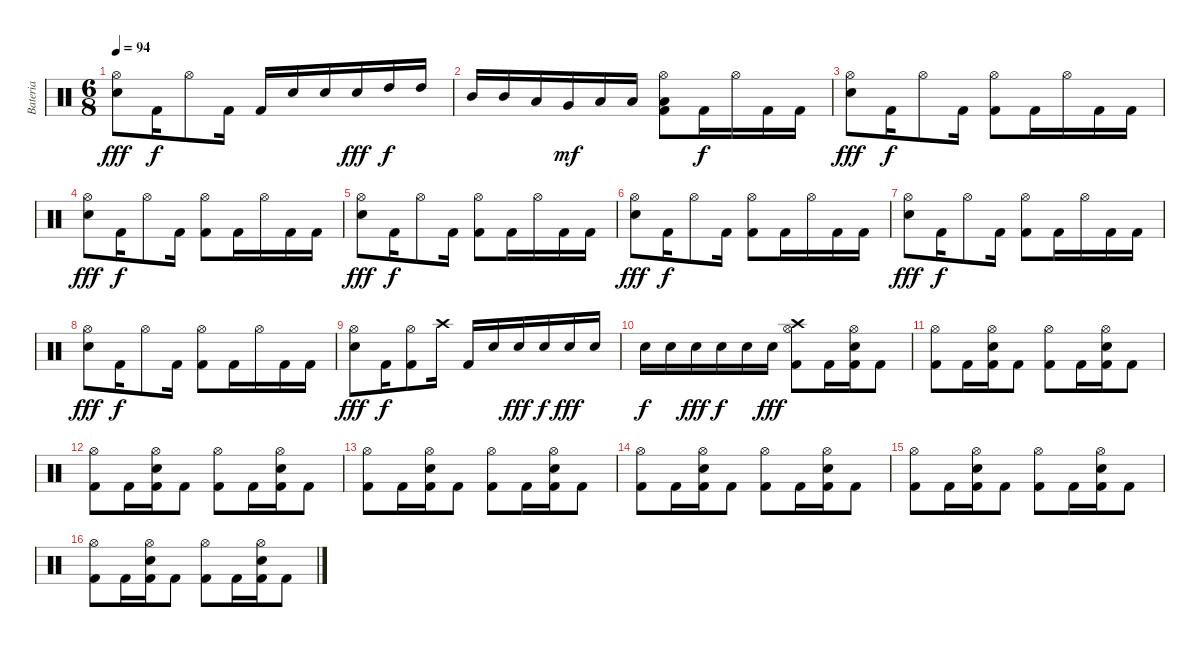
\track ("Bateria" "Bateria") {instrument percussion}
\staff {score}
\articulation defaults
\ts (6 8)
\tempo 94
\clef neutral
\ks c
("Hi-Hat (open)" "Electric Snare (hit)").8{dy fff} "Kick (hit) 2".16{dy f} "Hi-Hat (open)".8 "Kick (hit) 2".16 "Kick (hit) 2".16 "Electric Snare (hit)".16 "Electric Snare (hit)".16 "Electric Snare (hit)".16{dy fff} "High Tom (hit)".16{dy f} "High Tom (hit)".16 |
"Mid Tom (hit)".16 "Mid Tom (hit)".16 "Low Tom (hit)".16 "Very Low Tom (hit)".16{dy mf} "Low Floor Tom (hit)".16 "Low Floor Tom (hit)".16 ("Hi-Hat (open)" "Low Floor Tom (hit)" "Kick (hit) 2").8 "Kick (hit) 2".16{dy f} "Hi-Hat (open)".16 "Kick (hit) 2".16 "Kick (hit) 2".16 |
("Hi-Hat (open)" "Electric Snare (hit)").8{dy fff} "Kick (hit) 2".16{dy f} "Hi-Hat (open)".8 "Kick (hit) 2".16 ("Hi-Hat (open)" "Kick (hit) 2").8 "Kick (hit) 2".16 "Hi-Hat (open)".16 "Kick (hit) 2".16 "Kick (hit) 2".16 |
("Hi-Hat (open)" "Electric Snare (hit)").8{dy fff} "Kick (hit) 2".16{dy f} "Hi-Hat (open)".8 "Kick (hit) 2".16 ("Hi-Hat (open)" "Kick (hit) 2").8 "Kick (hit) 2".16 "Hi-Hat (open)".16 "Kick (hit) 2".16 "Kick (hit) 2".16 |
("Hi-Hat (open)" "Electric Snare (hit)").8{dy fff} "Kick (hit) 2".16{dy f} "Hi-Hat (open)".8 "Kick (hit) 2".16 ("Hi-Hat (open)" "Kick (hit) 2").8 "Kick (hit) 2".16 "Hi-Hat (open)".16 "Kick (hit) 2".16 "Kick (hit) 2".16 |
("Hi-Hat (open)" "Electric Snare (hit)").8{dy fff} "Kick (hit) 2".16{dy f} "Hi-Hat (open)".8 "Kick (hit) 2".16 ("Hi-Hat (open)" "Kick (hit) 2").8 "Kick (hit) 2".16 "Hi-Hat (open)".16 "Kick (hit) 2".16 "Kick (hit) 2".16 |
("Hi-Hat (open)" "Electric Snare (hit)").8{dy fff} "Kick (hit) 2".16{dy f} "Hi-Hat (open)".8 "Kick (hit) 2".16 ("Hi-Hat (open)" "Kick (hit) 2").8 "Kick (hit) 2".16 "Hi-Hat (open)".16 "Kick (hit) 2".16 "Kick (hit) 2".16 |
("Hi-Hat (open)" "Electric Snare (hit)").8{dy fff} "Kick (hit) 2".16{dy f} "Hi-Hat (open)".8 "Kick (hit) 2".16 ("Hi-Hat (open)" "Kick (hit) 2").8 "Kick (hit) 2".16 "Hi-Hat (open)".16 "Kick (hit) 2".16 "Kick (hit) 2".16 |
("Hi-Hat (open)" "Electric Snare (hit)").8{dy fff} "Kick (hit) 2".16{dy f} ("Hi-Hat (open)" "Kick (hit) 2").8 "Crash high (hit)".16 "Kick (hit) 2".16 "Electric Snare (hit)".16 "Electric Snare (hit)".16{dy fff} "Electric Snare (hit)".16{dy f} "Electric Snare (hit)".16{dy fff} "Electric Snare (hit)".16 |
"Electric Snare (hit)".16{dy f} "Electric Snare (hit)".16 "Electric Snare (hit)".16{dy fff} "Electric Snare (hit)".16{dy f} "Electric Snare (hit)".16 "Electric Snare (hit)".16{dy fff} ("Crash high (hit)" "Hi-Hat (open)" "Kick (hit) 2").8 "Kick (hit) 2".16 ("Hi-Hat (open)" "Electric Snare (hit)" "Kick (hit) 2").16 "Kick (hit) 2".8 |
("Hi-Hat (open)" "Kick (hit) 2").8 "Kick (hit) 2".16 ("Hi-Hat (open)" "Electric Snare (hit)" "Kick (hit) 2").16 "Kick (hit) 2".8 ("Hi-Hat (open)" "Kick (hit) 2").8 "Kick (hit) 2".16 ("Hi-Hat (open)" "Electric Snare (hit)" "Kick (hit) 2").16 "Kick (hit) 2".8 |
("Hi-Hat (open)" "Kick (hit) 2").8 "Kick (hit) 2".16 ("Hi-Hat (open)" "Electric Snare (hit)" "Kick (hit) 2").16 "Kick (hit) 2".8 ("Hi-Hat (open)" "Kick (hit) 2").8 "Kick (hit) 2".16 ("Hi-Hat (open)" "Electric Snare (hit)" "Kick (hit) 2").16 "Kick (hit) 2".8 |
("Hi-Hat (open)" "Kick (hit) 2").8 "Kick (hit) 2".16 ("Hi-Hat (open)" "Electric Snare (hit)" "Kick (hit) 2").16 "Kick (hit) 2".8 ("Hi-Hat (open)" "Kick (hit) 2").8 "Kick (hit) 2".16 ("Hi-Hat (open)" "Electric Snare (hit)" "Kick (hit) 2").16 "Kick (hit) 2".8 |
("Hi-Hat (open)" "Kick (hit) 2").8 "Kick (hit) 2".16 ("Hi-Hat (open)" "Electric Snare (hit)" "Kick (hit) 2").16 "Kick (hit) 2".8 ("Hi-Hat (open)" "Kick (hit) 2").8 "Kick (hit) 2".16 ("Hi-Hat (open)" "Electric Snare (hit)" "Kick (hit) 2").16 "Kick (hit) 2".8 |
("Hi-Hat (open)" "Kick (hit) 2").8 "Kick (hit) 2".16 ("Hi-Hat (open)" "Electric Snare (hit)" "Kick (hit) 2").16 "Kick (hit) 2".8 ("Hi-Hat (open)" "Kick (hit) 2").8 "Kick (hit) 2".16 ("Hi-Hat (open)" "Electric Snare (hit)" "Kick (hit) 2").16 "Kick (hit) 2".8 |
("Hi-Hat (open)" "Kick (hit) 2").8 "Kick (hit) 2".16 ("Hi-Hat (open)" "Electric Snare (hit)" "Kick (hit) 2").16 "Kick (hit) 2".8 ("Hi-Hat (open)" "Kick (hit) 2").8 "Kick (hit) 2".16 ("Hi-Hat (open)" "Electric Snare (hit)" "Kick (hit) 2").16 "Kick (hit) 2".8
